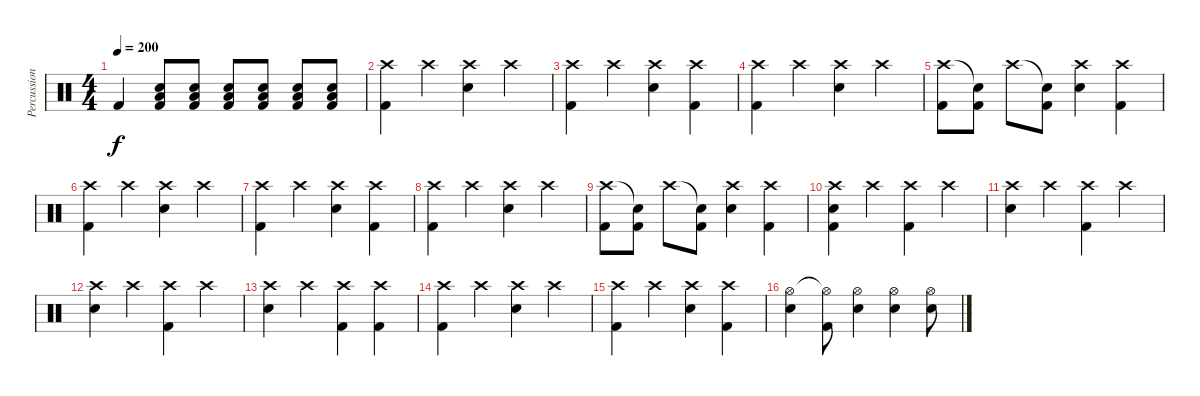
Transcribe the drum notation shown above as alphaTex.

\track ("Percussions" "Percussion") {instrument percussion}
\staff {score}
\articulation defaults
\ts (4 4)
\tempo 200
\clef neutral
\ks c "Kick (hit) 2".4{dy f}
("Electric Snare (hit)" "Low Tom (hit)" "Kick (hit) 2").8 ("Electric Snare (hit)" "Low Tom (hit)" "Kick (hit) 2").8 ("Electric Snare (hit)" "Low Tom (hit)" "Kick (hit) 2").8 ("Electric Snare (hit)" "Low Tom (hit)" "Kick (hit) 2").8 ("Electric Snare (hit)" "Low Tom (hit)" "Kick (hit) 2").8 ("Electric Snare (hit)" "Low Tom (hit)" "Kick (hit) 2").8 |
("Crash high (hit)" "Kick (hit) 2").4 "Crash high (hit)".4 ("Crash high (hit)" "Electric Snare (hit)").4 "Crash high (hit)".4 |
("Crash high (hit)" "Kick (hit) 2").4 "Crash high (hit)".4 ("Crash high (hit)" "Electric Snare (hit)").4 ("Crash high (hit)" "Kick (hit) 2").4 |
("Crash high (hit)" "Kick (hit) 2").4 "Crash high (hit)".4 ("Crash high (hit)" "Electric Snare (hit)").4 "Crash high (hit)".4 |
("Crash high (hit)" "Kick (hit) 2").8 ("Snare (hit)"{t} "Kick (hit) 2").8 "Crash high (hit)".8 ("Snare (hit)"{t} "Kick (hit) 2").8 ("Crash high (hit)" "Electric Snare (hit)").4 ("Crash high (hit)" "Kick (hit) 2").4 |
("Crash high (hit)" "Kick (hit) 2").4 "Crash high (hit)".4 ("Crash high (hit)" "Electric Snare (hit)").4 "Crash high (hit)".4 |
("Crash high (hit)" "Kick (hit) 2").4 "Crash high (hit)".4 ("Crash high (hit)" "Electric Snare (hit)").4 ("Crash high (hit)" "Kick (hit) 2").4 |
("Crash high (hit)" "Kick (hit) 2").4 "Crash high (hit)".4 ("Crash high (hit)" "Electric Snare (hit)").4 "Crash high (hit)".4 |
("Crash high (hit)" "Kick (hit) 2").8 ("Snare (hit)"{t} "Kick (hit) 2").8 "Crash high (hit)".8 ("Snare (hit)"{t} "Kick (hit) 2").8 ("Crash high (hit)" "Electric Snare (hit)").4 ("Crash high (hit)" "Kick (hit) 2").4 |
("Crash high (hit)" "Electric Snare (hit)" "Kick (hit) 2").4 "Crash high (hit)".4 ("Crash high (hit)" "Kick (hit) 2").4 "Crash high (hit)".4 |
("Crash high (hit)" "Electric Snare (hit)").4 "Crash high (hit)".4 ("Crash high (hit)" "Kick (hit) 2").4 "Crash high (hit)".4 |
("Crash high (hit)" "Electric Snare (hit)").4 "Crash high (hit)".4 ("Crash high (hit)" "Kick (hit) 2").4 "Crash high (hit)".4 |
("Crash high (hit)" "Electric Snare (hit)").4 "Crash high (hit)".4 ("Crash high (hit)" "Kick (hit) 2").4 ("Crash high (hit)" "Kick (hit) 2").4 |
("Crash high (hit)" "Kick (hit) 2").4 "Crash high (hit)".4 ("Crash high (hit)" "Electric Snare (hit)").4 "Crash high (hit)".4 |
("Crash high (hit)" "Kick (hit) 2").4 "Crash high (hit)".4 ("Crash high (hit)" "Electric Snare (hit)").4 ("Crash high (hit)" "Kick (hit) 2").4 |
("Hi-Hat (open)" "Electric Snare (hit)").4 ("Hi-Hat (open)"{t} "Kick (hit) 2").8 ("Hi-Hat (open)" "Electric Snare (hit)").4 ("Hi-Hat (open)" "Electric Snare (hit)").4 ("Hi-Hat (open)" "Electric Snare (hit)").8
